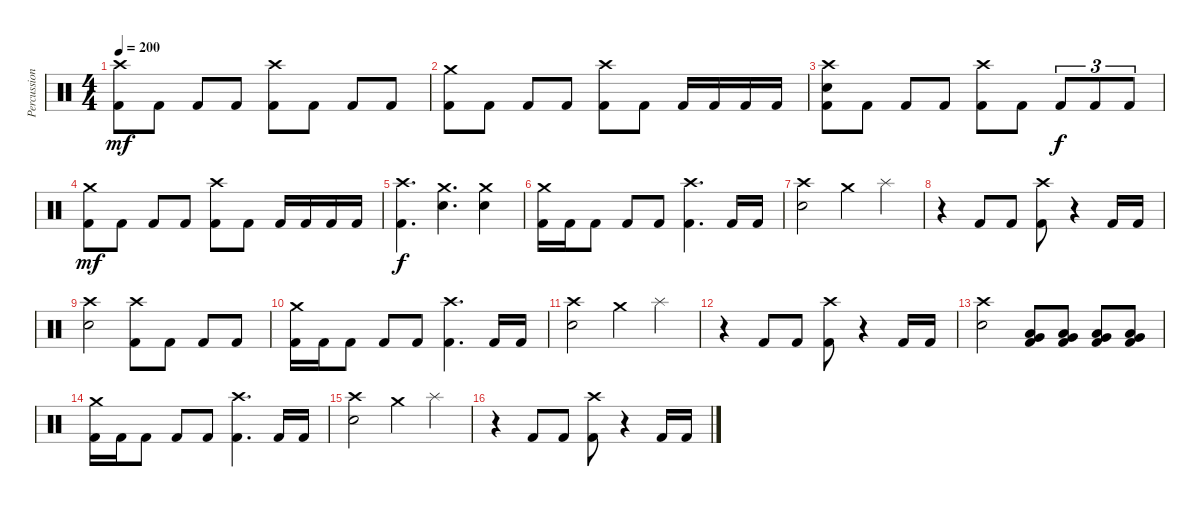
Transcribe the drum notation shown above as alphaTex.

\track ("Percussions" "Percussion") {instrument percussion}
\staff {score}
\articulation defaults
\ts (4 4)
\tempo 200
\clef neutral
\ks c
("Crash high (hit)" "Kick (hit) 2").8{dy mf} "Kick (hit) 2".8 "Kick (hit) 2".8 "Kick (hit) 2".8 ("Crash high (hit)" "Kick (hit) 2").8 "Kick (hit) 2".8 "Kick (hit) 2".8 "Kick (hit) 2".8 |
("Crash medium (hit)" "Kick (hit) 2").8 "Kick (hit) 2".8 "Kick (hit) 2".8 "Kick (hit) 2".8 ("Crash high (hit)" "Kick (hit) 2").8 "Kick (hit) 2".8 "Kick (hit) 2".16 "Kick (hit) 2".16 "Kick (hit) 2".16 "Kick (hit) 2".16 |
("Crash high (hit)" "Electric Snare (hit)" "Kick (hit) 2").8 "Kick (hit) 2".8 "Kick (hit) 2".8 "Kick (hit) 2".8 ("Crash high (hit)" "Kick (hit) 2").8 "Kick (hit) 2".8 "Kick (hit) 2".8{tu (3 2) dy f} "Kick (hit) 2".8{tu (3 2)} "Kick (hit) 2".8{tu (3 2)} |
("Crash medium (hit)" "Kick (hit) 2").8{dy mf} "Kick (hit) 2".8 "Kick (hit) 2".8 "Kick (hit) 2".8 ("Crash high (hit)" "Kick (hit) 2").8 "Kick (hit) 2".8 "Kick (hit) 2".16 "Kick (hit) 2".16 "Kick (hit) 2".16 "Kick (hit) 2".16 |
("Crash high (hit)" "Kick (hit) 2").4{d dy f} ("Crash medium (hit)" "Electric Snare (hit)").4{d} ("Crash medium (hit)" "Electric Snare (hit)").4 |
("Crash medium (hit)" "Kick (hit) 2").16 "Kick (hit) 2".16 "Kick (hit) 2".8 "Kick (hit) 2".8 "Kick (hit) 2".8 ("Crash high (hit)" "Kick (hit) 2").4{d} "Kick (hit) 2".16 "Kick (hit) 2".16 |
("Crash high (hit)" "Electric Snare (hit)").2 "Crash medium (hit)".4 "Splash (hit)".4 |
r.4 "Kick (hit) 2".8 "Kick (hit) 2".8 ("Crash high (hit)" "Kick (hit) 2").8 r.4 "Kick (hit) 2".16 "Kick (hit) 2".16 |
("Crash high (hit)" "Electric Snare (hit)").2 ("Crash high (hit)" "Kick (hit) 2").8 "Kick (hit) 2".8 "Kick (hit) 2".8 "Kick (hit) 2".8 |
("Crash medium (hit)" "Kick (hit) 2").16 "Kick (hit) 2".16 "Kick (hit) 2".8 "Kick (hit) 2".8 "Kick (hit) 2".8 ("Crash high (hit)" "Kick (hit) 2").4{d} "Kick (hit) 2".16 "Kick (hit) 2".16 |
("Crash high (hit)" "Electric Snare (hit)").2 "Crash medium (hit)".4 "Splash (hit)".4 |
r.4 "Kick (hit) 2".8 "Kick (hit) 2".8 ("Crash high (hit)" "Kick (hit) 2").8 r.4 "Kick (hit) 2".16 "Kick (hit) 2".16 |
("Crash high (hit)" "Electric Snare (hit)").2 ("Very Low Tom (hit)" "Low Floor Tom (hit)" "Kick (hit) 2").8 ("Very Low Tom (hit)" "Low Floor Tom (hit)" "Kick (hit) 2").8 ("Very Low Tom (hit)" "Low Floor Tom (hit)" "Kick (hit) 2").8 ("Very Low Tom (hit)" "Low Floor Tom (hit)" "Kick (hit) 2").8 |
("Crash medium (hit)" "Kick (hit) 2").16 "Kick (hit) 2".16 "Kick (hit) 2".8 "Kick (hit) 2".8 "Kick (hit) 2".8 ("Crash high (hit)" "Kick (hit) 2").4{d} "Kick (hit) 2".16 "Kick (hit) 2".16 |
("Crash high (hit)" "Electric Snare (hit)").2 "Crash medium (hit)".4 "Splash (hit)".4 |
r.4 "Kick (hit) 2".8 "Kick (hit) 2".8 ("Crash high (hit)" "Kick (hit) 2").8 r.4 "Kick (hit) 2".16 "Kick (hit) 2".16
